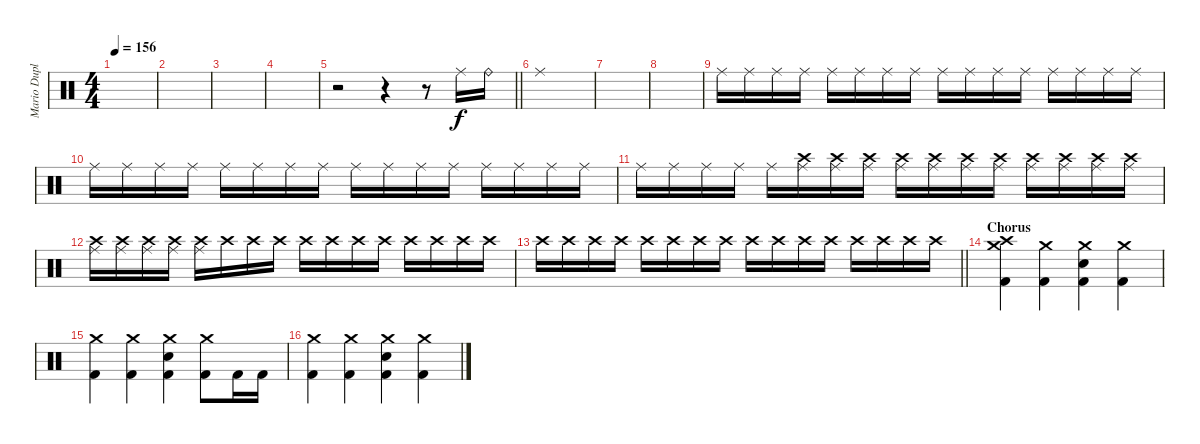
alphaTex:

\track ("Mario Duplantier" "Mario Dupl") {instrument percussion}
\staff {score}
\articulation defaults
\ts (4 4)
\tempo 156
\clef neutral
\ks c
|
|
|
|
\barLineRight lightlight
r.2 r.4 r.8 "Ride (middle)".16 "Ride (bell)".16 |
\section ("" "")
"Ride (middle)".1 |
|
|
"Ride (middle)".16{volume 9} "Ride (middle)".16 "Ride (middle)".16 "Ride (middle)".16 "Ride (middle)".16 "Ride (middle)".16 "Ride (middle)".16 "Ride (middle)".16 "Ride (middle)".16 "Ride (middle)".16 "Ride (middle)".16 "Ride (middle)".16 "Ride (middle)".16 "Ride (middle)".16 "Ride (middle)".16 "Ride (middle)".16 |
"Ride (middle)".16 "Ride (middle)".16 "Ride (middle)".16 "Ride (middle)".16 "Ride (middle)".16 "Ride (middle)".16 "Ride (middle)".16 "Ride (middle)".16 "Ride (middle)".16 "Ride (middle)".16 "Ride (middle)".16 "Ride (middle)".16 "Ride (middle)".16 "Ride (middle)".16 "Ride (middle)".16 "Ride (middle)".16 |
"Ride (middle)".16 "Ride (middle)".16 "Ride (middle)".16 "Ride (middle)".16 "Ride (middle)".16 ("Ride (middle)" "Crash high (hit)").16 ("Ride (middle)" "Crash high (hit)").16 ("Ride (middle)" "Crash high (hit)").16 ("Ride (middle)" "Crash high (hit)").16 ("Ride (middle)" "Crash high (hit)").16 ("Ride (middle)" "Crash high (hit)").16 ("Ride (middle)" "Crash high (hit)").16 ("Ride (middle)" "Crash high (hit)").16 ("Ride (middle)" "Crash high (hit)").16 ("Ride (middle)" "Crash high (hit)").16 ("Ride (middle)" "Crash high (hit)").16 |
("Crash high (hit)" "Ride (middle)").16 ("Crash high (hit)" "Ride (middle)").16 ("Crash high (hit)" "Ride (middle)").16 ("Crash high (hit)" "Ride (middle)").16 ("Crash high (hit)" "Ride (middle)").16 "Crash high (hit)".16 "Crash high (hit)".16 "Crash high (hit)".16 "Crash high (hit)".16 "Crash high (hit)".16 "Crash high (hit)".16 "Crash high (hit)".16 "Crash high (hit)".16 "Crash high (hit)".16 "Crash high (hit)".16 "Crash high (hit)".16 |
\barLineRight lightlight "Crash high (hit)".16 "Crash high (hit)".16 "Crash high (hit)".16 "Crash high (hit)".16 "Crash high (hit)".16 "Crash high (hit)".16 "Crash high (hit)".16 "Crash high (hit)".16 "Crash high (hit)".16 "Crash high (hit)".16 "Crash high (hit)".16 "Crash high (hit)".16 "Crash high (hit)".16 "Crash high (hit)".16 "Crash high (hit)".16 "Crash high (hit)".16
|
\section ("" "Chorus")
("Crash medium (hit)" "Crash high (hit)" "Kick (hit) 2").4{volume 13} ("Crash medium (hit)" "Kick (hit) 2").4 ("Crash medium (hit)" "Electric Snare (hit)" "Kick (hit) 2").4 ("Crash medium (hit)" "Kick (hit) 2").4 |
("Crash medium (hit)" "Kick (hit) 2").4 ("Crash medium (hit)" "Kick (hit) 2").4 ("Crash medium (hit)" "Electric Snare (hit)" "Kick (hit) 2").4 ("Crash medium (hit)" "Kick (hit) 2").8 "Kick (hit) 2".16 "Kick (hit) 2".16 |
("Crash medium (hit)" "Kick (hit) 2").4 ("Crash medium (hit)" "Kick (hit) 2").4 ("Crash medium (hit)" "Electric Snare (hit)" "Kick (hit) 2").4 ("Crash medium (hit)" "Kick (hit) 2").4
